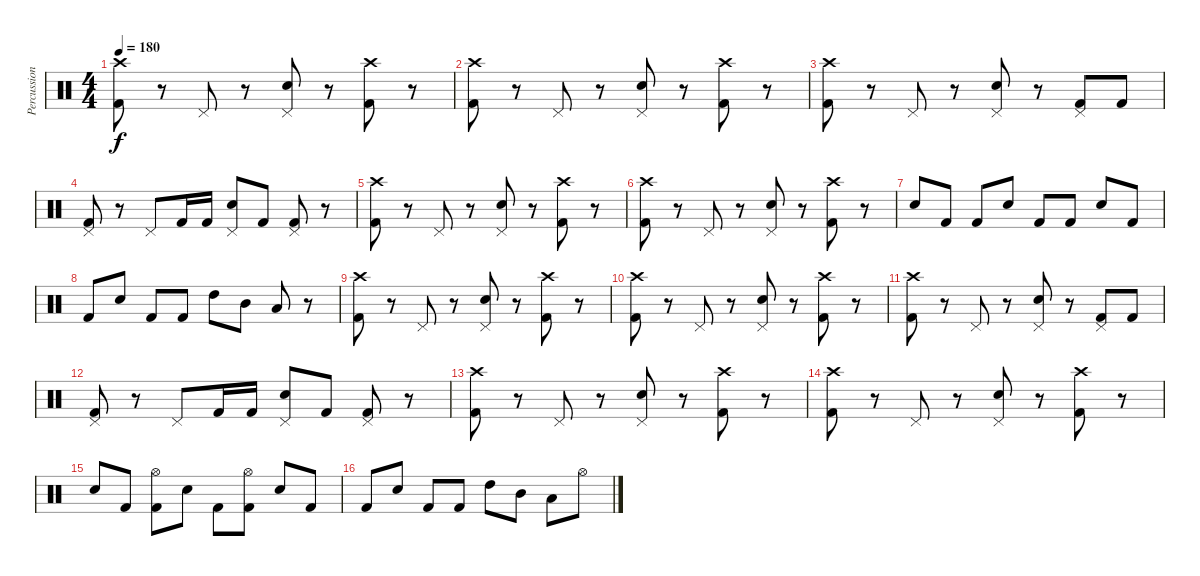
\track ("Percussion" "Percussion") {instrument percussion}
\staff {score}
\articulation defaults
\ts (4 4)
\tempo 180
\clef neutral
\ks c
("Crash high (hit)" "Kick (hit) 2").8{dy f} r.8 "Pedal Hi-Hat (hit)".8 r.8 ("Pedal Hi-Hat (hit)" "Snare (hit) 2").8 r.8 ("Crash high (hit)" "Kick (hit) 2").8 r.8 |
("Crash high (hit)" "Kick (hit) 2").8 r.8 "Pedal Hi-Hat (hit)".8 r.8 ("Pedal Hi-Hat (hit)" "Snare (hit) 2").8 r.8 ("Crash high (hit)" "Kick (hit) 2").8 r.8 |
("Crash high (hit)" "Kick (hit) 2").8 r.8 "Pedal Hi-Hat (hit)".8 r.8 ("Pedal Hi-Hat (hit)" "Snare (hit) 2").8 r.8 ("Pedal Hi-Hat (hit)" "Kick (hit) 2").8 "Kick (hit) 2".8 |
("Pedal Hi-Hat (hit)" "Kick (hit) 2").8 r.8 "Pedal Hi-Hat (hit)".8 "Kick (hit) 2".16 "Kick (hit) 2".16 ("Pedal Hi-Hat (hit)" "Snare (hit) 2").8 "Kick (hit) 2".8 ("Pedal Hi-Hat (hit)" "Kick (hit) 2").8 r.8 |
("Crash high (hit)" "Kick (hit) 2").8 r.8 "Pedal Hi-Hat (hit)".8 r.8 ("Pedal Hi-Hat (hit)" "Snare (hit) 2").8 r.8 ("Crash high (hit)" "Kick (hit) 2").8 r.8 |
("Crash high (hit)" "Kick (hit) 2").8 r.8 "Pedal Hi-Hat (hit)".8 r.8 ("Pedal Hi-Hat (hit)" "Snare (hit) 2").8 r.8 ("Crash high (hit)" "Kick (hit) 2").8 r.8 |
"Snare (hit) 2".8 "Kick (hit) 2".8 "Kick (hit) 2".8 "Snare (hit) 2".8 "Kick (hit) 2".8 "Kick (hit) 2".8 "Snare (hit) 2".8 "Kick (hit) 2".8 |
"Kick (hit) 2".8 "Snare (hit) 2".8 "Kick (hit) 2".8 "Kick (hit) 2".8 "High Tom (hit)".8 "Mid Tom (hit)".8 "Low Tom (hit)".8 r.8 |
("Crash high (hit)" "Kick (hit) 2").8 r.8 "Pedal Hi-Hat (hit)".8 r.8 ("Pedal Hi-Hat (hit)" "Snare (hit) 2").8 r.8 ("Crash high (hit)" "Kick (hit) 2").8 r.8 |
("Crash high (hit)" "Kick (hit) 2").8 r.8 "Pedal Hi-Hat (hit)".8 r.8 ("Pedal Hi-Hat (hit)" "Snare (hit) 2").8 r.8 ("Crash high (hit)" "Kick (hit) 2").8 r.8 |
("Crash high (hit)" "Kick (hit) 2").8 r.8 "Pedal Hi-Hat (hit)".8 r.8 ("Pedal Hi-Hat (hit)" "Snare (hit) 2").8 r.8 ("Pedal Hi-Hat (hit)" "Kick (hit) 2").8 "Kick (hit) 2".8 |
("Pedal Hi-Hat (hit)" "Kick (hit) 2").8 r.8 "Pedal Hi-Hat (hit)".8 "Kick (hit) 2".16 "Kick (hit) 2".16 ("Pedal Hi-Hat (hit)" "Snare (hit) 2").8 "Kick (hit) 2".8 ("Pedal Hi-Hat (hit)" "Kick (hit) 2").8 r.8 |
("Crash high (hit)" "Kick (hit) 2").8 r.8 "Pedal Hi-Hat (hit)".8 r.8 ("Pedal Hi-Hat (hit)" "Snare (hit) 2").8 r.8 ("Crash high (hit)" "Kick (hit) 2").8 r.8 |
("Crash high (hit)" "Kick (hit) 2").8 r.8 "Pedal Hi-Hat (hit)".8 r.8 ("Pedal Hi-Hat (hit)" "Snare (hit) 2").8 r.8 ("Crash high (hit)" "Kick (hit) 2").8 r.8 |
"Snare (hit) 2".8 "Kick (hit) 2".8 ("Hi-Hat (open)" "Kick (hit) 2").8 "Snare (hit) 2".8 "Kick (hit) 2".8 ("Hi-Hat (open)" "Kick (hit) 2").8 "Snare (hit) 2".8 "Kick (hit) 2".8 |
"Kick (hit) 2".8 "Snare (hit) 2".8 "Kick (hit) 2".8 "Kick (hit) 2".8 "High Tom (hit)".8 "Mid Tom (hit)".8 "Low Tom (hit)".8 "Hi-Hat (open)".8
